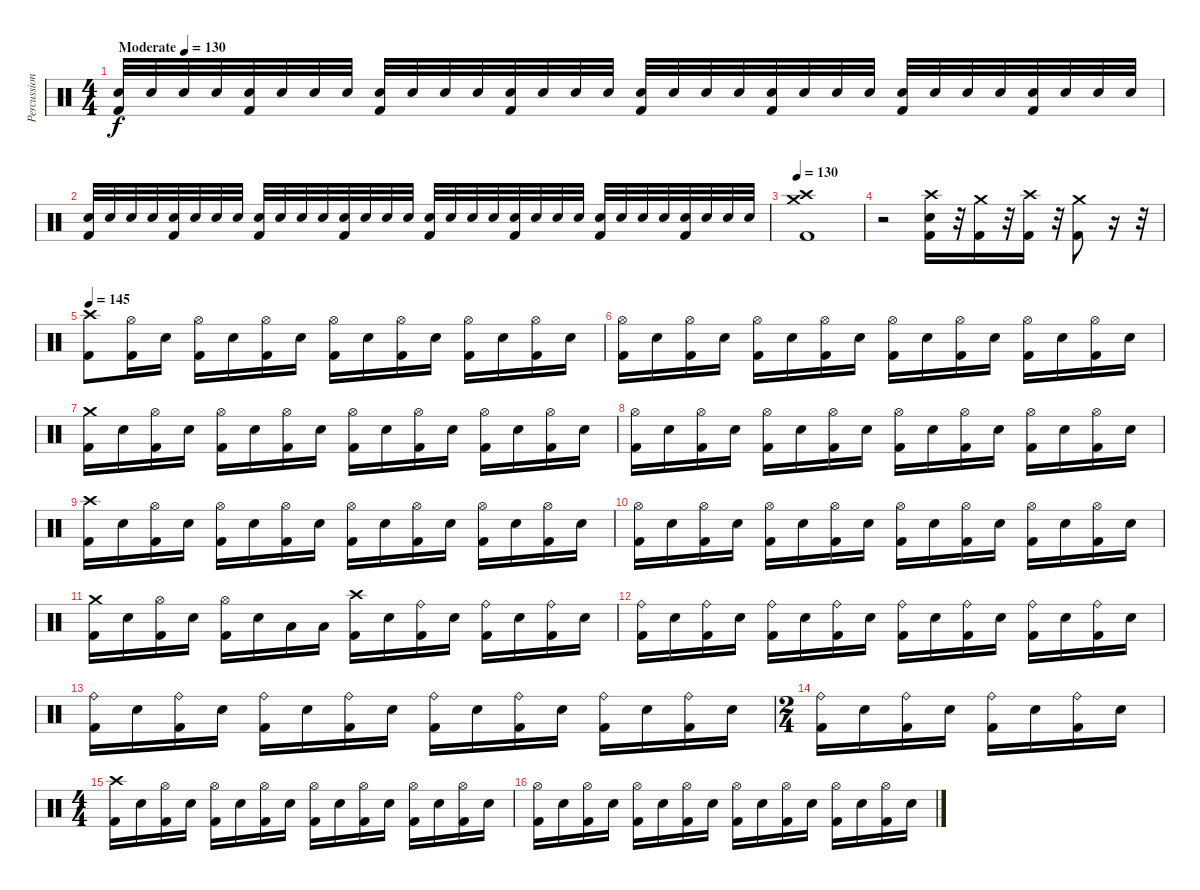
\track ("Percussion" "Percussion") {instrument percussion}
\staff {score}
\articulation defaults
\ts (4 4)
\tempo (130 "Moderate")
\tempo 120
\tempo (130 "Moderate")
\clef neutral
\ks c
("Electric Snare (hit)" "Kick (hit) 2").32{dy f} "Electric Snare (hit)".32 "Electric Snare (hit)".32 "Electric Snare (hit)".32 ("Electric Snare (hit)" "Kick (hit) 2").32 "Electric Snare (hit)".32 "Electric Snare (hit)".32 "Electric Snare (hit)".32 ("Electric Snare (hit)" "Kick (hit) 2").32 "Electric Snare (hit)".32 "Electric Snare (hit)".32 "Electric Snare (hit)".32 ("Electric Snare (hit)" "Kick (hit) 2").32 "Electric Snare (hit)".32 "Electric Snare (hit)".32 "Electric Snare (hit)".32 ("Electric Snare (hit)" "Kick (hit) 2").32 "Electric Snare (hit)".32 "Electric Snare (hit)".32 "Electric Snare (hit)".32 ("Electric Snare (hit)" "Kick (hit) 2").32 "Electric Snare (hit)".32 "Electric Snare (hit)".32 "Electric Snare (hit)".32 ("Electric Snare (hit)" "Kick (hit) 2").32 "Electric Snare (hit)".32 "Electric Snare (hit)".32 "Electric Snare (hit)".32 ("Electric Snare (hit)" "Kick (hit) 2").32 "Electric Snare (hit)".32 "Electric Snare (hit)".32 "Electric Snare (hit)".32 |
("Electric Snare (hit)" "Kick (hit) 2").32 "Electric Snare (hit)".32 "Electric Snare (hit)".32 "Electric Snare (hit)".32 ("Electric Snare (hit)" "Kick (hit) 2").32 "Electric Snare (hit)".32 "Electric Snare (hit)".32 "Electric Snare (hit)".32 ("Electric Snare (hit)" "Kick (hit) 2").32 "Electric Snare (hit)".32 "Electric Snare (hit)".32 "Electric Snare (hit)".32 ("Electric Snare (hit)" "Kick (hit) 2").32 "Electric Snare (hit)".32 "Electric Snare (hit)".32 "Electric Snare (hit)".32 ("Electric Snare (hit)" "Kick (hit) 2").32 "Electric Snare (hit)".32 "Electric Snare (hit)".32 "Electric Snare (hit)".32 ("Electric Snare (hit)" "Kick (hit) 2").32 "Electric Snare (hit)".32 "Electric Snare (hit)".32 "Electric Snare (hit)".32 ("Electric Snare (hit)" "Kick (hit) 2").32 "Electric Snare (hit)".32 "Electric Snare (hit)".32 "Electric Snare (hit)".32 ("Electric Snare (hit)" "Kick (hit) 2").32 "Electric Snare (hit)".32 "Electric Snare (hit)".32 "Electric Snare (hit)".32 |
\tempo 130
("Crash medium (hit)" "Crash high (hit)" "Kick (hit) 2").1 |
r.2 ("Crash high (hit)" "Electric Snare (hit)" "Kick (hit) 2").16 r.32 ("Crash medium (hit)" "Kick (hit) 2").16 r.32 ("Crash high (hit)" "Kick (hit) 2").16 r.32 ("Crash medium (hit)" "Kick (hit) 2").8 r.16 r.32 |
\tempo 145
("Crash high (hit)" "Kick (hit) 2").8 ("Hi-Hat (open)" "Kick (hit) 2").16 "Electric Snare (hit)".16 ("Hi-Hat (open)" "Kick (hit) 2").16 "Electric Snare (hit)".16 ("Hi-Hat (open)" "Kick (hit) 2").16 "Electric Snare (hit)".16 ("Hi-Hat (open)" "Kick (hit) 2").16 "Electric Snare (hit)".16 ("Hi-Hat (open)" "Kick (hit) 2").16 "Electric Snare (hit)".16 ("Hi-Hat (open)" "Kick (hit) 2").16 "Electric Snare (hit)".16 ("Hi-Hat (open)" "Kick (hit) 2").16 "Electric Snare (hit)".16 |
("Hi-Hat (open)" "Kick (hit) 2").16 "Electric Snare (hit)".16 ("Hi-Hat (open)" "Kick (hit) 2").16 "Electric Snare (hit)".16 ("Hi-Hat (open)" "Kick (hit) 2").16 "Electric Snare (hit)".16 ("Hi-Hat (open)" "Kick (hit) 2").16 "Electric Snare (hit)".16 ("Hi-Hat (open)" "Kick (hit) 2").16 "Electric Snare (hit)".16 ("Hi-Hat (open)" "Kick (hit) 2").16 "Electric Snare (hit)".16 ("Hi-Hat (open)" "Kick (hit) 2").16 "Electric Snare (hit)".16 ("Hi-Hat (open)" "Kick (hit) 2").16 "Electric Snare (hit)".16 |
("Crash medium (hit)" "Kick (hit) 2").16 "Electric Snare (hit)".16 ("Hi-Hat (open)" "Kick (hit) 2").16 "Electric Snare (hit)".16 ("Hi-Hat (open)" "Kick (hit) 2").16 "Electric Snare (hit)".16 ("Hi-Hat (open)" "Kick (hit) 2").16 "Electric Snare (hit)".16 ("Hi-Hat (open)" "Kick (hit) 2").16 "Electric Snare (hit)".16 ("Hi-Hat (open)" "Kick (hit) 2").16 "Electric Snare (hit)".16 ("Hi-Hat (open)" "Kick (hit) 2").16 "Electric Snare (hit)".16 ("Hi-Hat (open)" "Kick (hit) 2").16 "Electric Snare (hit)".16 |
("Hi-Hat (open)" "Kick (hit) 2").16 "Electric Snare (hit)".16 ("Hi-Hat (open)" "Kick (hit) 2").16 "Electric Snare (hit)".16 ("Hi-Hat (open)" "Kick (hit) 2").16 "Electric Snare (hit)".16 ("Hi-Hat (open)" "Kick (hit) 2").16 "Electric Snare (hit)".16 ("Hi-Hat (open)" "Kick (hit) 2").16 "Electric Snare (hit)".16 ("Hi-Hat (open)" "Kick (hit) 2").16 "Electric Snare (hit)".16 ("Hi-Hat (open)" "Kick (hit) 2").16 "Electric Snare (hit)".16 ("Hi-Hat (open)" "Kick (hit) 2").16 "Electric Snare (hit)".16 |
("Crash high (hit)" "Kick (hit) 2").16 "Electric Snare (hit)".16 ("Hi-Hat (open)" "Kick (hit) 2").16 "Electric Snare (hit)".16 ("Hi-Hat (open)" "Kick (hit) 2").16 "Electric Snare (hit)".16 ("Hi-Hat (open)" "Kick (hit) 2").16 "Electric Snare (hit)".16 ("Hi-Hat (open)" "Kick (hit) 2").16 "Electric Snare (hit)".16 ("Hi-Hat (open)" "Kick (hit) 2").16 "Electric Snare (hit)".16 ("Hi-Hat (open)" "Kick (hit) 2").16 "Electric Snare (hit)".16 ("Hi-Hat (open)" "Kick (hit) 2").16 "Electric Snare (hit)".16 |
("Hi-Hat (open)" "Kick (hit) 2").16 "Electric Snare (hit)".16 ("Hi-Hat (open)" "Kick (hit) 2").16 "Electric Snare (hit)".16 ("Hi-Hat (open)" "Kick (hit) 2").16 "Electric Snare (hit)".16 ("Hi-Hat (open)" "Kick (hit) 2").16 "Electric Snare (hit)".16 ("Hi-Hat (open)" "Kick (hit) 2").16 "Electric Snare (hit)".16 ("Hi-Hat (open)" "Kick (hit) 2").16 "Electric Snare (hit)".16 ("Hi-Hat (open)" "Kick (hit) 2").16 "Electric Snare (hit)".16 ("Hi-Hat (open)" "Kick (hit) 2").16 "Electric Snare (hit)".16 |
("Crash medium (hit)" "Kick (hit) 2").16 "Electric Snare (hit)".16 ("Hi-Hat (open)" "Kick (hit) 2").16 "Electric Snare (hit)".16 ("Hi-Hat (open)" "Kick (hit) 2").16 "Electric Snare (hit)".16 "Low Tom (hit)".16 "Low Tom (hit)".16 ("Crash high (hit)" "Kick (hit) 2").16 "Electric Snare (hit)".16 ("Ride (bell)" "Kick (hit) 2").16 "Electric Snare (hit)".16 ("Ride (bell)" "Kick (hit) 2").16 "Electric Snare (hit)".16 ("Ride (bell)" "Kick (hit) 2").16 "Electric Snare (hit)".16 |
("Ride (bell)" "Kick (hit) 2").16 "Electric Snare (hit)".16 ("Ride (bell)" "Kick (hit) 2").16 "Electric Snare (hit)".16 ("Ride (bell)" "Kick (hit) 2").16 "Electric Snare (hit)".16 ("Ride (bell)" "Kick (hit) 2").16 "Electric Snare (hit)".16 ("Ride (bell)" "Kick (hit) 2").16 "Electric Snare (hit)".16 ("Ride (bell)" "Kick (hit) 2").16 "Electric Snare (hit)".16 ("Ride (bell)" "Kick (hit) 2").16 "Electric Snare (hit)".16 ("Ride (bell)" "Kick (hit) 2").16 "Electric Snare (hit)".16 |
("Ride (bell)" "Kick (hit) 2").16 "Electric Snare (hit)".16 ("Ride (bell)" "Kick (hit) 2").16 "Electric Snare (hit)".16 ("Ride (bell)" "Kick (hit) 2").16 "Electric Snare (hit)".16 ("Ride (bell)" "Kick (hit) 2").16 "Electric Snare (hit)".16 ("Ride (bell)" "Kick (hit) 2").16 "Electric Snare (hit)".16 ("Ride (bell)" "Kick (hit) 2").16 "Electric Snare (hit)".16 ("Ride (bell)" "Kick (hit) 2").16 "Electric Snare (hit)".16 ("Ride (bell)" "Kick (hit) 2").16 "Electric Snare (hit)".16 |
\ts (2 4)
("Ride (bell)" "Kick (hit) 2").16 "Electric Snare (hit)".16 ("Ride (bell)" "Kick (hit) 2").16 "Electric Snare (hit)".16 ("Ride (bell)" "Kick (hit) 2").16 "Electric Snare (hit)".16 ("Ride (bell)" "Kick (hit) 2").16 "Electric Snare (hit)".16 |
\ts (4 4)
("Crash high (hit)" "Kick (hit) 2").16 "Electric Snare (hit)".16 ("Hi-Hat (open)" "Kick (hit) 2").16 "Electric Snare (hit)".16 ("Hi-Hat (open)" "Kick (hit) 2").16 "Electric Snare (hit)".16 ("Hi-Hat (open)" "Kick (hit) 2").16 "Electric Snare (hit)".16 ("Hi-Hat (open)" "Kick (hit) 2").16 "Electric Snare (hit)".16 ("Hi-Hat (open)" "Kick (hit) 2").16 "Electric Snare (hit)".16 ("Hi-Hat (open)" "Kick (hit) 2").16 "Electric Snare (hit)".16 ("Hi-Hat (open)" "Kick (hit) 2").16 "Electric Snare (hit)".16 |
("Hi-Hat (open)" "Kick (hit) 2").16 "Electric Snare (hit)".16 ("Hi-Hat (open)" "Kick (hit) 2").16 "Electric Snare (hit)".16 ("Hi-Hat (open)" "Kick (hit) 2").16 "Electric Snare (hit)".16 ("Hi-Hat (open)" "Kick (hit) 2").16 "Electric Snare (hit)".16 ("Hi-Hat (open)" "Kick (hit) 2").16 "Electric Snare (hit)".16 ("Hi-Hat (open)" "Kick (hit) 2").16 "Electric Snare (hit)".16 ("Hi-Hat (open)" "Kick (hit) 2").16 "Electric Snare (hit)".16 ("Hi-Hat (open)" "Kick (hit) 2").16 "Electric Snare (hit)".16
